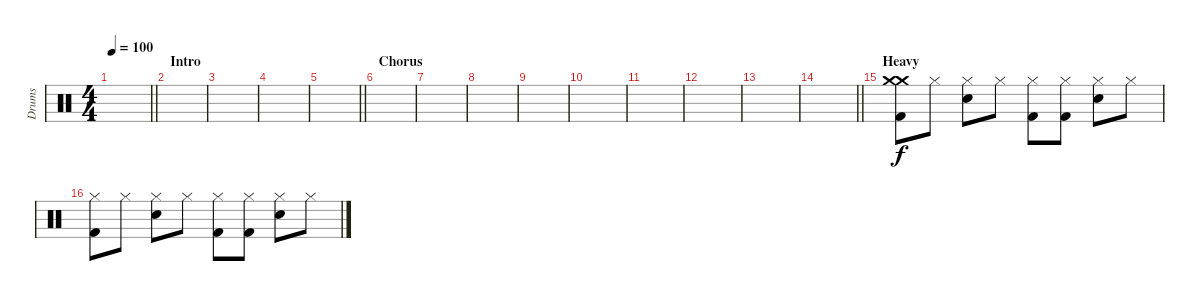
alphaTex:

\track ("Drums" "Drums") {instrument percussion}
\staff {score}
\articulation defaults
\ts (4 4)
\tempo 100
\clef neutral
\barLineRight lightlight
\ks c
|
\section ("" "Intro")
|
|
|
\barLineRight lightlight
|
\section ("" "Chorus")
|
|
|
|
|
|
|
|
\barLineRight lightlight
|
\section ("" "Heavy")
("Crash medium (hit)" "Crash medium (hit)" "Kick (hit) 2").8 "Hi-Hat (closed)".8 ("Hi-Hat (closed)" "Electric Snare (hit)").8 "Hi-Hat (closed)".8 ("Hi-Hat (closed)" "Kick (hit) 2").8 ("Hi-Hat (closed)" "Kick (hit) 2").8 ("Hi-Hat (closed)" "Electric Snare (hit)").8 "Hi-Hat (closed)".8 |
("Hi-Hat (closed)" "Kick (hit) 2").8 "Hi-Hat (closed)".8 ("Hi-Hat (closed)" "Electric Snare (hit)").8 "Hi-Hat (closed)".8 ("Hi-Hat (closed)" "Kick (hit) 2").8 ("Hi-Hat (closed)" "Kick (hit) 2").8 ("Hi-Hat (closed)" "Electric Snare (hit)").8 "Hi-Hat (closed)".8
